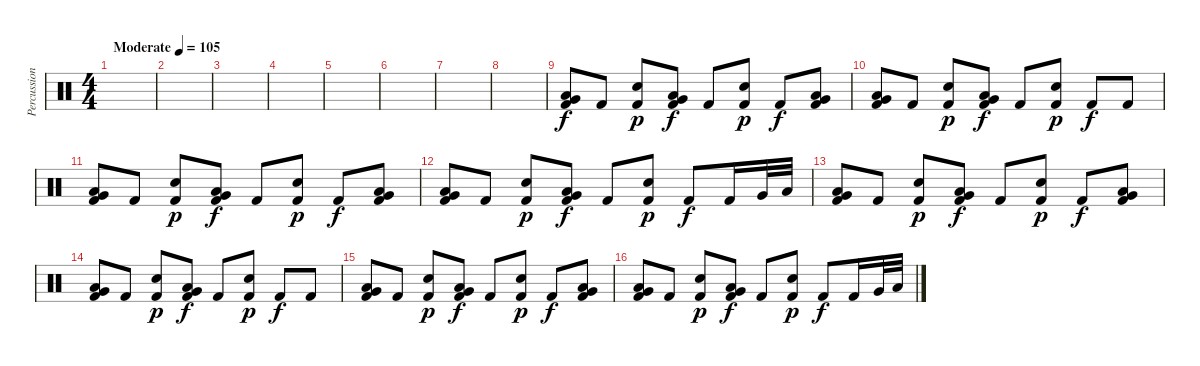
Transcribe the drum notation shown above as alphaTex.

\track ("Percussion" "Percussion") {instrument percussion}
\staff {score}
\articulation defaults
\ts (4 4)
\tempo (105 "Moderate")
\clef neutral
\ks c
|
|
|
|
|
|
|
|
("Very Low Tom (hit)" "Low Floor Tom (hit)" "Kick (hit) 2").8 "Kick (hit) 2".8 ("Snare (hit) 2" "Kick (hit) 2").8{dy p} ("Very Low Tom (hit)" "Low Floor Tom (hit)" "Kick (hit) 2").8{dy f} "Kick (hit) 2".8 ("Snare (hit) 2" "Kick (hit) 2").8{dy p} "Kick (hit) 2".8{dy f} ("Very Low Tom (hit)" "Low Floor Tom (hit)" "Kick (hit) 2").8 |
("Very Low Tom (hit)" "Low Floor Tom (hit)" "Kick (hit) 2").8 "Kick (hit) 2".8 ("Snare (hit) 2" "Kick (hit) 2").8{dy p} ("Very Low Tom (hit)" "Low Floor Tom (hit)" "Kick (hit) 2").8{dy f} "Kick (hit) 2".8 ("Snare (hit) 2" "Kick (hit) 2").8{dy p} "Kick (hit) 2".8{dy f} "Kick (hit) 2".8 |
("Very Low Tom (hit)" "Low Floor Tom (hit)" "Kick (hit) 2").8 "Kick (hit) 2".8 ("Snare (hit) 2" "Kick (hit) 2").8{dy p} ("Very Low Tom (hit)" "Low Floor Tom (hit)" "Kick (hit) 2").8{dy f} "Kick (hit) 2".8 ("Snare (hit) 2" "Kick (hit) 2").8{dy p} "Kick (hit) 2".8{dy f} ("Very Low Tom (hit)" "Low Floor Tom (hit)" "Kick (hit) 2").8 |
("Very Low Tom (hit)" "Low Floor Tom (hit)" "Kick (hit) 2").8 "Kick (hit) 2".8 ("Snare (hit) 2" "Kick (hit) 2").8{dy p} ("Very Low Tom (hit)" "Low Floor Tom (hit)" "Kick (hit) 2").8{dy f} "Kick (hit) 2".8 ("Snare (hit) 2" "Kick (hit) 2").8{dy p} "Kick (hit) 2".8{dy f} "Kick (hit) 2".16 "Very Low Tom (hit)".32 "Low Floor Tom (hit)".32 |
("Very Low Tom (hit)" "Low Floor Tom (hit)" "Kick (hit) 2").8 "Kick (hit) 2".8 ("Snare (hit) 2" "Kick (hit) 2").8{dy p} ("Very Low Tom (hit)" "Low Floor Tom (hit)" "Kick (hit) 2").8{dy f} "Kick (hit) 2".8 ("Snare (hit) 2" "Kick (hit) 2").8{dy p} "Kick (hit) 2".8{dy f} ("Very Low Tom (hit)" "Low Floor Tom (hit)" "Kick (hit) 2").8 |
("Very Low Tom (hit)" "Low Floor Tom (hit)" "Kick (hit) 2").8 "Kick (hit) 2".8 ("Snare (hit) 2" "Kick (hit) 2").8{dy p} ("Very Low Tom (hit)" "Low Floor Tom (hit)" "Kick (hit) 2").8{dy f} "Kick (hit) 2".8 ("Snare (hit) 2" "Kick (hit) 2").8{dy p} "Kick (hit) 2".8{dy f} "Kick (hit) 2".8 |
("Very Low Tom (hit)" "Low Floor Tom (hit)" "Kick (hit) 2").8 "Kick (hit) 2".8 ("Snare (hit) 2" "Kick (hit) 2").8{dy p} ("Very Low Tom (hit)" "Low Floor Tom (hit)" "Kick (hit) 2").8{dy f} "Kick (hit) 2".8 ("Snare (hit) 2" "Kick (hit) 2").8{dy p} "Kick (hit) 2".8{dy f} ("Very Low Tom (hit)" "Low Floor Tom (hit)" "Kick (hit) 2").8 |
("Very Low Tom (hit)" "Low Floor Tom (hit)" "Kick (hit) 2").8 "Kick (hit) 2".8 ("Snare (hit) 2" "Kick (hit) 2").8{dy p} ("Very Low Tom (hit)" "Low Floor Tom (hit)" "Kick (hit) 2").8{dy f} "Kick (hit) 2".8 ("Snare (hit) 2" "Kick (hit) 2").8{dy p} "Kick (hit) 2".8{dy f} "Kick (hit) 2".16 "Very Low Tom (hit)".32 "Low Floor Tom (hit)".32
